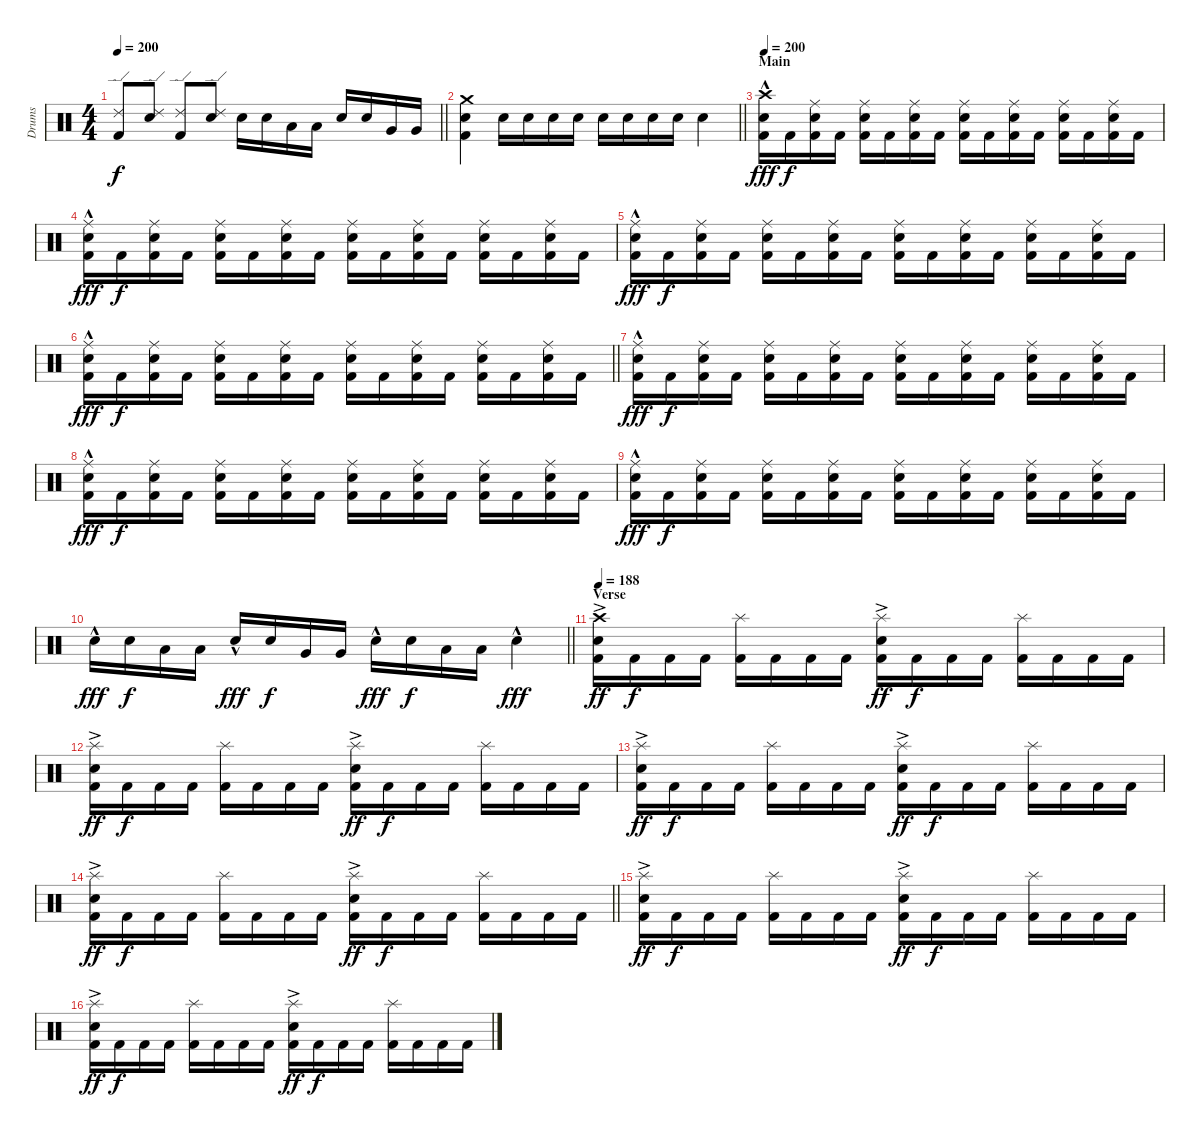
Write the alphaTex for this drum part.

\track ("Drums" "Drums") {instrument percussion}
\staff {score}
\articulation defaults
\ts (4 4)
\tempo 200
\clef neutral
\barLineRight lightlight
\ks c
("Kick (hit) 2" "Ride (edge) 2").8{dy f} ("Snare (hit) 2" "Ride (edge) 2").8 ("Kick (hit) 2" "Ride (edge) 2").8 ("Snare (hit) 2" "Ride (edge) 2").8 "Snare (hit) 2".16 "Snare (hit) 2".16 "Low Tom (hit)".16 "Low Tom (hit)".16 "Snare (hit) 2".16 "Snare (hit) 2".16 "Very Low Tom (hit)".16 "Very Low Tom (hit)".16 |
\section ("" "")
\barLineRight lightlight
("Kick (hit) 2" "Snare (hit) 2" "Crash medium (hit)").4 "Snare (hit) 2".16 "Snare (hit) 2".16 "Snare (hit) 2".16 "Snare (hit) 2".16 "Snare (hit) 2".16 "Snare (hit) 2".16 "Snare (hit) 2".16 "Snare (hit) 2".16 "Snare (hit) 2".4 |
\section ("" "Main")
\tempo 200
("Kick (hit) 2" "Snare (hit) 2"{hac} "Crash high (hit)").16{dy fff volume 12} "Kick (hit) 2".16{dy f} ("Kick (hit) 2" "Snare (hit) 2" "Ride (middle)").16 "Kick (hit) 2".16 ("Kick (hit) 2" "Snare (hit) 2" "Ride (middle)").16 "Kick (hit) 2".16 ("Kick (hit) 2" "Snare (hit) 2" "Ride (middle)").16 "Kick (hit) 2".16 ("Kick (hit) 2" "Snare (hit) 2" "Ride (middle)").16 "Kick (hit) 2".16 ("Kick (hit) 2" "Snare (hit) 2" "Ride (middle)").16 "Kick (hit) 2".16 ("Kick (hit) 2" "Snare (hit) 2" "Ride (middle)").16 "Kick (hit) 2".16 ("Kick (hit) 2" "Snare (hit) 2" "Ride (middle)").16 "Kick (hit) 2".16 |
("Kick (hit) 2" "Snare (hit) 2"{hac} "Ride (middle)").16{dy fff} "Kick (hit) 2".16{dy f} ("Kick (hit) 2" "Snare (hit) 2" "Ride (middle)").16 "Kick (hit) 2".16 ("Kick (hit) 2" "Snare (hit) 2" "Ride (middle)").16 "Kick (hit) 2".16 ("Kick (hit) 2" "Snare (hit) 2" "Ride (middle)").16 "Kick (hit) 2".16 ("Kick (hit) 2" "Snare (hit) 2" "Ride (middle)").16 "Kick (hit) 2".16 ("Kick (hit) 2" "Snare (hit) 2" "Ride (middle)").16 "Kick (hit) 2".16 ("Kick (hit) 2" "Snare (hit) 2" "Ride (middle)").16 "Kick (hit) 2".16 ("Kick (hit) 2" "Snare (hit) 2" "Ride (middle)").16 "Kick (hit) 2".16 |
("Kick (hit) 2" "Snare (hit) 2"{hac} "Ride (middle)").16{dy fff} "Kick (hit) 2".16{dy f} ("Kick (hit) 2" "Snare (hit) 2" "Ride (middle)").16 "Kick (hit) 2".16 ("Kick (hit) 2" "Snare (hit) 2" "Ride (middle)").16 "Kick (hit) 2".16 ("Kick (hit) 2" "Snare (hit) 2" "Ride (middle)").16 "Kick (hit) 2".16 ("Kick (hit) 2" "Snare (hit) 2" "Ride (middle)").16 "Kick (hit) 2".16 ("Kick (hit) 2" "Snare (hit) 2" "Ride (middle)").16 "Kick (hit) 2".16 ("Kick (hit) 2" "Snare (hit) 2" "Ride (middle)").16 "Kick (hit) 2".16 ("Kick (hit) 2" "Snare (hit) 2" "Ride (middle)").16 "Kick (hit) 2".16 |
\barLineRight lightlight
("Kick (hit) 2" "Snare (hit) 2"{hac} "Ride (middle)").16{dy fff} "Kick (hit) 2".16{dy f} ("Kick (hit) 2" "Snare (hit) 2" "Ride (middle)").16 "Kick (hit) 2".16 ("Kick (hit) 2" "Snare (hit) 2" "Ride (middle)").16 "Kick (hit) 2".16 ("Kick (hit) 2" "Snare (hit) 2" "Ride (middle)").16 "Kick (hit) 2".16 ("Kick (hit) 2" "Snare (hit) 2" "Ride (middle)").16 "Kick (hit) 2".16 ("Kick (hit) 2" "Snare (hit) 2" "Ride (middle)").16 "Kick (hit) 2".16 ("Kick (hit) 2" "Snare (hit) 2" "Ride (middle)").16 "Kick (hit) 2".16 ("Kick (hit) 2" "Snare (hit) 2" "Ride (middle)").16 "Kick (hit) 2".16 |
\section ("" "")
("Kick (hit) 2" "Snare (hit) 2"{hac} "Ride (middle)").16{dy fff} "Kick (hit) 2".16{dy f} ("Kick (hit) 2" "Snare (hit) 2" "Ride (middle)").16 "Kick (hit) 2".16 ("Kick (hit) 2" "Snare (hit) 2" "Ride (middle)").16 "Kick (hit) 2".16 ("Kick (hit) 2" "Snare (hit) 2" "Ride (middle)").16 "Kick (hit) 2".16 ("Kick (hit) 2" "Snare (hit) 2" "Ride (middle)").16 "Kick (hit) 2".16 ("Kick (hit) 2" "Snare (hit) 2" "Ride (middle)").16 "Kick (hit) 2".16 ("Kick (hit) 2" "Snare (hit) 2" "Ride (middle)").16 "Kick (hit) 2".16 ("Kick (hit) 2" "Snare (hit) 2" "Ride (middle)").16 "Kick (hit) 2".16 |
("Kick (hit) 2" "Snare (hit) 2"{hac} "Ride (middle)").16{dy fff} "Kick (hit) 2".16{dy f} ("Kick (hit) 2" "Snare (hit) 2" "Ride (middle)").16 "Kick (hit) 2".16 ("Kick (hit) 2" "Snare (hit) 2" "Ride (middle)").16 "Kick (hit) 2".16 ("Kick (hit) 2" "Snare (hit) 2" "Ride (middle)").16 "Kick (hit) 2".16 ("Kick (hit) 2" "Snare (hit) 2" "Ride (middle)").16 "Kick (hit) 2".16 ("Kick (hit) 2" "Snare (hit) 2" "Ride (middle)").16 "Kick (hit) 2".16 ("Kick (hit) 2" "Snare (hit) 2" "Ride (middle)").16 "Kick (hit) 2".16 ("Kick (hit) 2" "Snare (hit) 2" "Ride (middle)").16 "Kick (hit) 2".16 |
("Kick (hit) 2" "Snare (hit) 2"{hac} "Ride (middle)").16{dy fff} "Kick (hit) 2".16{dy f} ("Kick (hit) 2" "Snare (hit) 2" "Ride (middle)").16 "Kick (hit) 2".16 ("Kick (hit) 2" "Snare (hit) 2" "Ride (middle)").16 "Kick (hit) 2".16 ("Kick (hit) 2" "Snare (hit) 2" "Ride (middle)").16 "Kick (hit) 2".16 ("Kick (hit) 2" "Snare (hit) 2" "Ride (middle)").16 "Kick (hit) 2".16 ("Kick (hit) 2" "Snare (hit) 2" "Ride (middle)").16 "Kick (hit) 2".16 ("Kick (hit) 2" "Snare (hit) 2" "Ride (middle)").16 "Kick (hit) 2".16 ("Kick (hit) 2" "Snare (hit) 2" "Ride (middle)").16 "Kick (hit) 2".16 |
\barLineRight lightlight "Snare (hit) 2"{hac}.16{dy fff} "Snare (hit) 2".16{dy f} "Low Tom (hit)".16 "Low Tom (hit)".16 "Snare (hit) 2"{hac}.16{dy fff} "Snare (hit) 2".16{dy f} "Very Low Tom (hit)".16 "Very Low Tom (hit)".16 "Snare (hit) 2"{hac}.16{dy fff} "Snare (hit) 2".16{dy f} "Low Floor Tom (hit)".16 "Low Floor Tom (hit)".16 "Snare (hit) 2"{hac}.4{dy fff}
|
\section ("" "Verse")
\tempo 188
("Kick (hit) 2" "Snare (hit) 2"{ac} "Crash high (hit)").16{dy ff volume 14} "Kick (hit) 2".16{dy f} "Kick (hit) 2".16 "Kick (hit) 2".16 ("Kick (hit) 2" "Splash (hit)").16 "Kick (hit) 2".16 "Kick (hit) 2".16 "Kick (hit) 2".16 ("Kick (hit) 2" "Snare (hit) 2"{ac} "Splash (hit)").16{dy ff} "Kick (hit) 2".16{dy f} "Kick (hit) 2".16 "Kick (hit) 2".16 ("Kick (hit) 2" "Splash (hit)").16 "Kick (hit) 2".16 "Kick (hit) 2".16 "Kick (hit) 2".16 |
("Kick (hit) 2" "Snare (hit) 2"{ac} "Splash (hit)").16{dy ff} "Kick (hit) 2".16{dy f} "Kick (hit) 2".16 "Kick (hit) 2".16 ("Kick (hit) 2" "Splash (hit)").16 "Kick (hit) 2".16 "Kick (hit) 2".16 "Kick (hit) 2".16 ("Kick (hit) 2" "Snare (hit) 2"{ac} "Splash (hit)").16{dy ff} "Kick (hit) 2".16{dy f} "Kick (hit) 2".16 "Kick (hit) 2".16 ("Kick (hit) 2" "Splash (hit)").16 "Kick (hit) 2".16 "Kick (hit) 2".16 "Kick (hit) 2".16 |
("Kick (hit) 2" "Snare (hit) 2"{ac} "Splash (hit)").16{dy ff} "Kick (hit) 2".16{dy f} "Kick (hit) 2".16 "Kick (hit) 2".16 ("Kick (hit) 2" "Splash (hit)").16 "Kick (hit) 2".16 "Kick (hit) 2".16 "Kick (hit) 2".16 ("Kick (hit) 2" "Snare (hit) 2"{ac} "Splash (hit)").16{dy ff} "Kick (hit) 2".16{dy f} "Kick (hit) 2".16 "Kick (hit) 2".16 ("Kick (hit) 2" "Splash (hit)").16 "Kick (hit) 2".16 "Kick (hit) 2".16 "Kick (hit) 2".16 |
\barLineRight lightlight
("Kick (hit) 2" "Snare (hit) 2"{ac} "Splash (hit)").16{dy ff} "Kick (hit) 2".16{dy f} "Kick (hit) 2".16 "Kick (hit) 2".16 ("Kick (hit) 2" "Splash (hit)").16 "Kick (hit) 2".16 "Kick (hit) 2".16 "Kick (hit) 2".16 ("Kick (hit) 2" "Snare (hit) 2"{ac} "Splash (hit)").16{dy ff} "Kick (hit) 2".16{dy f} "Kick (hit) 2".16 "Kick (hit) 2".16 ("Kick (hit) 2" "Splash (hit)").16 "Kick (hit) 2".16 "Kick (hit) 2".16 "Kick (hit) 2".16 |
\section ("" "")
("Kick (hit) 2" "Snare (hit) 2"{ac} "Splash (hit)").16{dy ff} "Kick (hit) 2".16{dy f} "Kick (hit) 2".16 "Kick (hit) 2".16 ("Kick (hit) 2" "Splash (hit)").16 "Kick (hit) 2".16 "Kick (hit) 2".16 "Kick (hit) 2".16 ("Kick (hit) 2" "Snare (hit) 2"{ac} "Splash (hit)").16{dy ff} "Kick (hit) 2".16{dy f} "Kick (hit) 2".16 "Kick (hit) 2".16 ("Kick (hit) 2" "Splash (hit)").16 "Kick (hit) 2".16 "Kick (hit) 2".16 "Kick (hit) 2".16 |
("Kick (hit) 2" "Snare (hit) 2"{ac} "Splash (hit)").16{dy ff} "Kick (hit) 2".16{dy f} "Kick (hit) 2".16 "Kick (hit) 2".16 ("Kick (hit) 2" "Splash (hit)").16 "Kick (hit) 2".16 "Kick (hit) 2".16 "Kick (hit) 2".16 ("Kick (hit) 2" "Snare (hit) 2"{ac} "Splash (hit)").16{dy ff} "Kick (hit) 2".16{dy f} "Kick (hit) 2".16 "Kick (hit) 2".16 ("Kick (hit) 2" "Splash (hit)").16 "Kick (hit) 2".16 "Kick (hit) 2".16 "Kick (hit) 2".16
